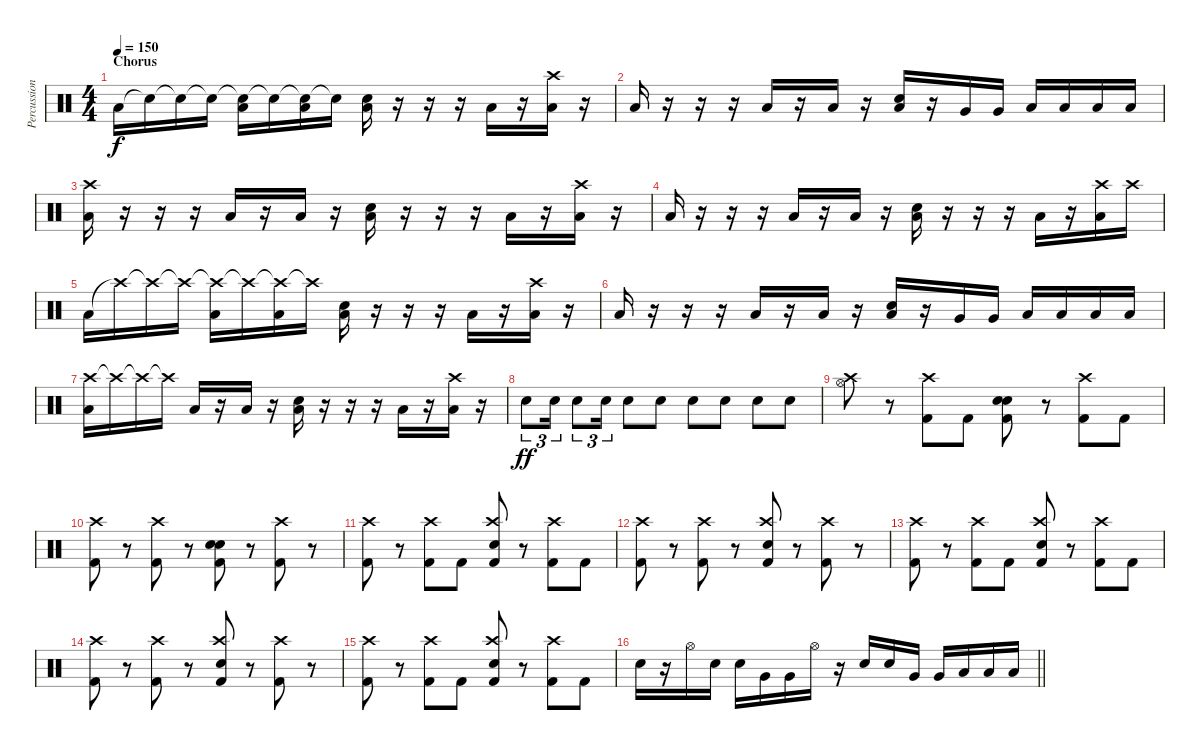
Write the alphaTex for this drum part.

\track ("Percussion" "Percussion") {instrument percussion}
\staff {score}
\articulation defaults
\ts (4 4)
\section ("" "Chorus")
\tempo 150
\clef neutral
\ks c "Low Floor Tom (hit)".16{dy f} "Snare (hit) 2"{t}.16 "Snare (hit) 2"{t}.16 "Snare (hit) 2"{t}.16
("Snare (hit) 2"{t} "Low Floor Tom (hit)").16 "Snare (hit) 2"{t}.16 ("Snare (hit) 2"{t} "Low Floor Tom (hit)").16 "Snare (hit) 2"{t}.16 ("Snare (hit) 2" "Low Floor Tom (hit)").16 r.16 r.16 r.16 "Low Floor Tom (hit)".16 r.16 ("Crash high (hit)" "Low Floor Tom (hit)").16 r.16 |
"Low Floor Tom (hit)".16 r.16 r.16 r.16 "Low Floor Tom (hit)".16 r.16 "Low Floor Tom (hit)".16 r.16 ("Snare (hit) 2" "Low Floor Tom (hit)").16 r.16 "Very Low Tom (hit)".16 "Very Low Tom (hit)".16 "Low Floor Tom (hit)".16 "Low Floor Tom (hit)".16 "Low Floor Tom (hit)".16 "Low Floor Tom (hit)".16 |
("Crash high (hit)" "Low Floor Tom (hit)").16 r.16 r.16 r.16 "Low Floor Tom (hit)".16 r.16 "Low Floor Tom (hit)".16 r.16 ("Snare (hit) 2" "Low Floor Tom (hit)").16 r.16 r.16 r.16 "Low Floor Tom (hit)".16 r.16 ("Crash high (hit)" "Low Floor Tom (hit)").16 r.16 |
"Low Floor Tom (hit)".16 r.16 r.16 r.16 "Low Floor Tom (hit)".16 r.16 "Low Floor Tom (hit)".16 r.16 ("Snare (hit) 2" "Low Floor Tom (hit)").16 r.16 r.16 r.16 "Low Floor Tom (hit)".16 r.16 ("Crash high (hit)" "Low Floor Tom (hit)").16 "Crash high (hit)".16 |
"Low Floor Tom (hit)".16 "Crash high (hit)"{t}.16 "Crash high (hit)"{t}.16 "Crash high (hit)"{t}.16 ("Crash high (hit)"{t} "Low Floor Tom (hit)").16 "Crash high (hit)"{t}.16 ("Crash high (hit)"{t} "Low Floor Tom (hit)").16 "Crash high (hit)"{t}.16 ("Snare (hit) 2" "Low Floor Tom (hit)").16 r.16 r.16 r.16 "Low Floor Tom (hit)".16 r.16 ("Crash high (hit)" "Low Floor Tom (hit)").16 r.16 |
"Low Floor Tom (hit)".16 r.16 r.16 r.16 "Low Floor Tom (hit)".16 r.16 "Low Floor Tom (hit)".16 r.16 ("Snare (hit) 2" "Low Floor Tom (hit)").16 r.16 "Very Low Tom (hit)".16 "Very Low Tom (hit)".16 "Low Floor Tom (hit)".16 "Low Floor Tom (hit)".16 "Low Floor Tom (hit)".16 "Low Floor Tom (hit)".16 |
("Crash high (hit)" "Low Floor Tom (hit)").16 "Crash high (hit)"{t}.16 "Crash high (hit)"{t}.16 "Crash high (hit)"{t}.16 "Low Floor Tom (hit)".16 r.16 "Low Floor Tom (hit)".16 r.16 ("Snare (hit) 2" "Low Floor Tom (hit)").16 r.16 r.16 r.16 "Low Floor Tom (hit)".16 r.16 ("Crash high (hit)" "Low Floor Tom (hit)").16 r.16 |
"Snare (hit) 2".8{tu (3 2) dy ff} "Snare (hit) 2".16{tu (3 2)} "Snare (hit) 2".8{tu (3 2)} "Snare (hit) 2".16{tu (3 2)} "Snare (hit) 2".8 "Snare (hit) 2".8 "Snare (hit) 2".8 "Snare (hit) 2".8 "Snare (hit) 2".8 "Snare (hit) 2".8 |
("Hi-Hat (open)" "Crash high (hit)").8 r.8 ("Kick (hit) 2" "Crash high (hit)").8 "Kick (hit) 2".8 ("Kick (hit) 2" "Snare (hit) 2" "Hand Clap (hit)").8 r.8 ("Kick (hit) 2" "Crash high (hit)").8 "Kick (hit) 2".8 |
("Kick (hit) 2" "Crash high (hit)").8 r.8 ("Kick (hit) 2" "Crash high (hit)").8 r.8 ("Kick (hit) 2" "Snare (hit) 2" "Hand Clap (hit)").8 r.8 ("Kick (hit) 2" "Crash high (hit)").8 r.8 |
("Kick (hit) 2" "Crash high (hit)").8 r.8 ("Kick (hit) 2" "Crash high (hit)").8 "Kick (hit) 2".8 ("Kick (hit) 2" "Snare (hit) 2" "Crash high (hit)").8 r.8 ("Kick (hit) 2" "Crash high (hit)").8 "Kick (hit) 2".8 |
("Kick (hit) 2" "Crash high (hit)").8 r.8 ("Kick (hit) 2" "Crash high (hit)").8 r.8 ("Kick (hit) 2" "Snare (hit) 2" "Crash high (hit)").8 r.8 ("Kick (hit) 2" "Crash high (hit)").8 r.8 |
("Kick (hit) 2" "Crash high (hit)").8 r.8 ("Kick (hit) 2" "Crash high (hit)").8 "Kick (hit) 2".8 ("Kick (hit) 2" "Snare (hit) 2" "Crash high (hit)").8 r.8 ("Kick (hit) 2" "Crash high (hit)").8 "Kick (hit) 2".8 |
("Kick (hit) 2" "Crash high (hit)").8 r.8 ("Kick (hit) 2" "Crash high (hit)").8 r.8 ("Kick (hit) 2" "Snare (hit) 2" "Crash high (hit)").8 r.8 ("Kick (hit) 2" "Crash high (hit)").8 r.8 |
("Kick (hit) 2" "Crash high (hit)").8 r.8 ("Kick (hit) 2" "Crash high (hit)").8 "Kick (hit) 2".8 ("Kick (hit) 2" "Snare (hit) 2" "Crash high (hit)").8 r.8 ("Kick (hit) 2" "Crash high (hit)").8 "Kick (hit) 2".8 |
\barLineRight lightlight "Snare (hit) 2".16
r.16 "Hi-Hat (open)".16 "Snare (hit) 2".16 "Snare (hit) 2".16 "Very Low Tom (hit)".16 "Very Low Tom (hit)".16 "Hi-Hat (open)".16 r.16 "Snare (hit) 2".16 "Snare (hit) 2".16 "Very Low Tom (hit)".16 "Very Low Tom (hit)".16 "Low Floor Tom (hit)".16 "Low Floor Tom (hit)".16 "Low Floor Tom (hit)".16
